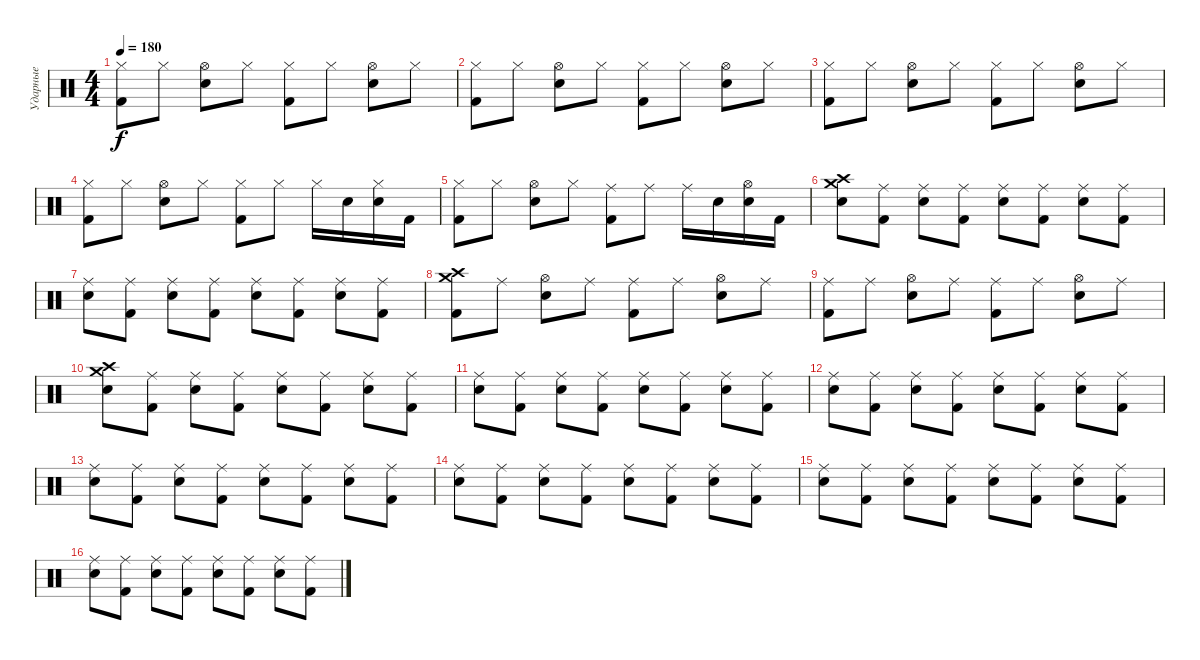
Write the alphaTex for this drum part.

\track ("Ударные" "Ударные") {instrument percussion}
\staff {score}
\articulation defaults
\ts (4 4)
\tempo 180
\clef neutral
\ks c
("Hi-Hat (closed)" "Kick (hit) 2").8{dy f} "Hi-Hat (closed)".8 ("Hi-Hat (open)" "Snare (hit) 2").8 "Hi-Hat (closed)".8 ("Hi-Hat (closed)" "Kick (hit) 2").8 "Hi-Hat (closed)".8 ("Hi-Hat (open)" "Snare (hit) 2").8 "Hi-Hat (closed)".8 |
("Hi-Hat (closed)" "Kick (hit) 2").8 "Hi-Hat (closed)".8 ("Hi-Hat (open)" "Snare (hit) 2").8 "Hi-Hat (closed)".8 ("Hi-Hat (closed)" "Kick (hit) 2").8 "Hi-Hat (closed)".8 ("Hi-Hat (open)" "Snare (hit) 2").8 "Hi-Hat (closed)".8 |
("Hi-Hat (closed)" "Kick (hit) 2").8 "Hi-Hat (closed)".8 ("Hi-Hat (open)" "Snare (hit) 2").8 "Hi-Hat (closed)".8 ("Hi-Hat (closed)" "Kick (hit) 2").8 "Hi-Hat (closed)".8 ("Hi-Hat (open)" "Snare (hit) 2").8 "Hi-Hat (closed)".8 |
("Hi-Hat (closed)" "Kick (hit) 2").8 "Hi-Hat (closed)".8 ("Hi-Hat (open)" "Snare (hit) 2").8 "Hi-Hat (closed)".8 ("Hi-Hat (closed)" "Kick (hit) 2").8 "Hi-Hat (closed)".8 "Hi-Hat (closed)".16 "Snare (hit) 2".16 ("Hi-Hat (closed)" "Snare (hit) 2").16 "Kick (hit) 2".16 |
("Hi-Hat (closed)" "Kick (hit) 2").8 "Hi-Hat (closed)".8 ("Hi-Hat (open)" "Snare (hit) 2").8 "Hi-Hat (closed)".8 ("Ride (middle)" "Kick (hit) 2").8 "Ride (middle)".8 "Ride (middle)".16 "Snare (hit) 2".16 ("Hi-Hat (open)" "Snare (hit) 2").16 "Kick (hit) 2".16 |
("Crash high (hit)" "Snare (hit) 2" "Crash medium (hit)").8 ("Ride (middle)" "Kick (hit) 2").8 ("Ride (middle)" "Snare (hit) 2").8 ("Ride (middle)" "Kick (hit) 2").8 ("Ride (middle)" "Snare (hit) 2").8 ("Ride (middle)" "Kick (hit) 2").8 ("Ride (middle)" "Snare (hit) 2").8 ("Ride (middle)" "Kick (hit) 2").8 |
("Ride (middle)" "Snare (hit) 2").8 ("Ride (middle)" "Kick (hit) 2").8 ("Ride (middle)" "Snare (hit) 2").8 ("Ride (middle)" "Kick (hit) 2").8 ("Ride (middle)" "Snare (hit) 2").8 ("Ride (middle)" "Kick (hit) 2").8 ("Ride (middle)" "Snare (hit) 2").8 ("Ride (middle)" "Kick (hit) 2").8 |
("Crash high (hit)" "Crash medium (hit)" "Kick (hit) 2").8 "Ride (middle)".8 ("Hi-Hat (open)" "Snare (hit) 2").8 "Ride (middle)".8 ("Ride (middle)" "Kick (hit) 2").8 "Ride (middle)".8 ("Hi-Hat (open)" "Snare (hit) 2").8 "Ride (middle)".8 |
("Ride (middle)" "Kick (hit) 2").8 "Ride (middle)".8 ("Hi-Hat (open)" "Snare (hit) 2").8 "Ride (middle)".8 ("Ride (middle)" "Kick (hit) 2").8 "Ride (middle)".8 ("Hi-Hat (open)" "Snare (hit) 2").8 "Ride (middle)".8 |
("Crash high (hit)" "Snare (hit) 2" "Crash medium (hit)").8 ("Ride (middle)" "Kick (hit) 2").8 ("Ride (middle)" "Snare (hit) 2").8 ("Ride (middle)" "Kick (hit) 2").8 ("Ride (middle)" "Snare (hit) 2").8 ("Ride (middle)" "Kick (hit) 2").8 ("Ride (middle)" "Snare (hit) 2").8 ("Ride (middle)" "Kick (hit) 2").8 |
("Ride (middle)" "Snare (hit) 2").8 ("Ride (middle)" "Kick (hit) 2").8 ("Ride (middle)" "Snare (hit) 2").8 ("Ride (middle)" "Kick (hit) 2").8 ("Ride (middle)" "Snare (hit) 2").8 ("Ride (middle)" "Kick (hit) 2").8 ("Ride (middle)" "Snare (hit) 2").8 ("Ride (middle)" "Kick (hit) 2").8 |
("Ride (middle)" "Snare (hit) 2").8 ("Ride (middle)" "Kick (hit) 2").8 ("Ride (middle)" "Snare (hit) 2").8 ("Ride (middle)" "Kick (hit) 2").8 ("Ride (middle)" "Snare (hit) 2").8 ("Ride (middle)" "Kick (hit) 2").8 ("Ride (middle)" "Snare (hit) 2").8 ("Ride (middle)" "Kick (hit) 2").8 |
("Ride (middle)" "Snare (hit) 2").8 ("Ride (middle)" "Kick (hit) 2").8 ("Ride (middle)" "Snare (hit) 2").8 ("Ride (middle)" "Kick (hit) 2").8 ("Ride (middle)" "Snare (hit) 2").8 ("Ride (middle)" "Kick (hit) 2").8 ("Ride (middle)" "Snare (hit) 2").8 ("Ride (middle)" "Kick (hit) 2").8 |
("Ride (middle)" "Snare (hit) 2").8 ("Ride (middle)" "Kick (hit) 2").8 ("Ride (middle)" "Snare (hit) 2").8 ("Ride (middle)" "Kick (hit) 2").8 ("Ride (middle)" "Snare (hit) 2").8 ("Ride (middle)" "Kick (hit) 2").8 ("Ride (middle)" "Snare (hit) 2").8 ("Ride (middle)" "Kick (hit) 2").8 |
("Ride (middle)" "Snare (hit) 2").8 ("Ride (middle)" "Kick (hit) 2").8 ("Ride (middle)" "Snare (hit) 2").8 ("Ride (middle)" "Kick (hit) 2").8 ("Ride (middle)" "Snare (hit) 2").8 ("Ride (middle)" "Kick (hit) 2").8 ("Ride (middle)" "Snare (hit) 2").8 ("Ride (middle)" "Kick (hit) 2").8 |
("Ride (middle)" "Snare (hit) 2").8 ("Ride (middle)" "Kick (hit) 2").8 ("Ride (middle)" "Snare (hit) 2").8 ("Ride (middle)" "Kick (hit) 2").8 ("Ride (middle)" "Snare (hit) 2").8 ("Ride (middle)" "Kick (hit) 2").8 ("Ride (middle)" "Snare (hit) 2").8 ("Ride (middle)" "Kick (hit) 2").8
